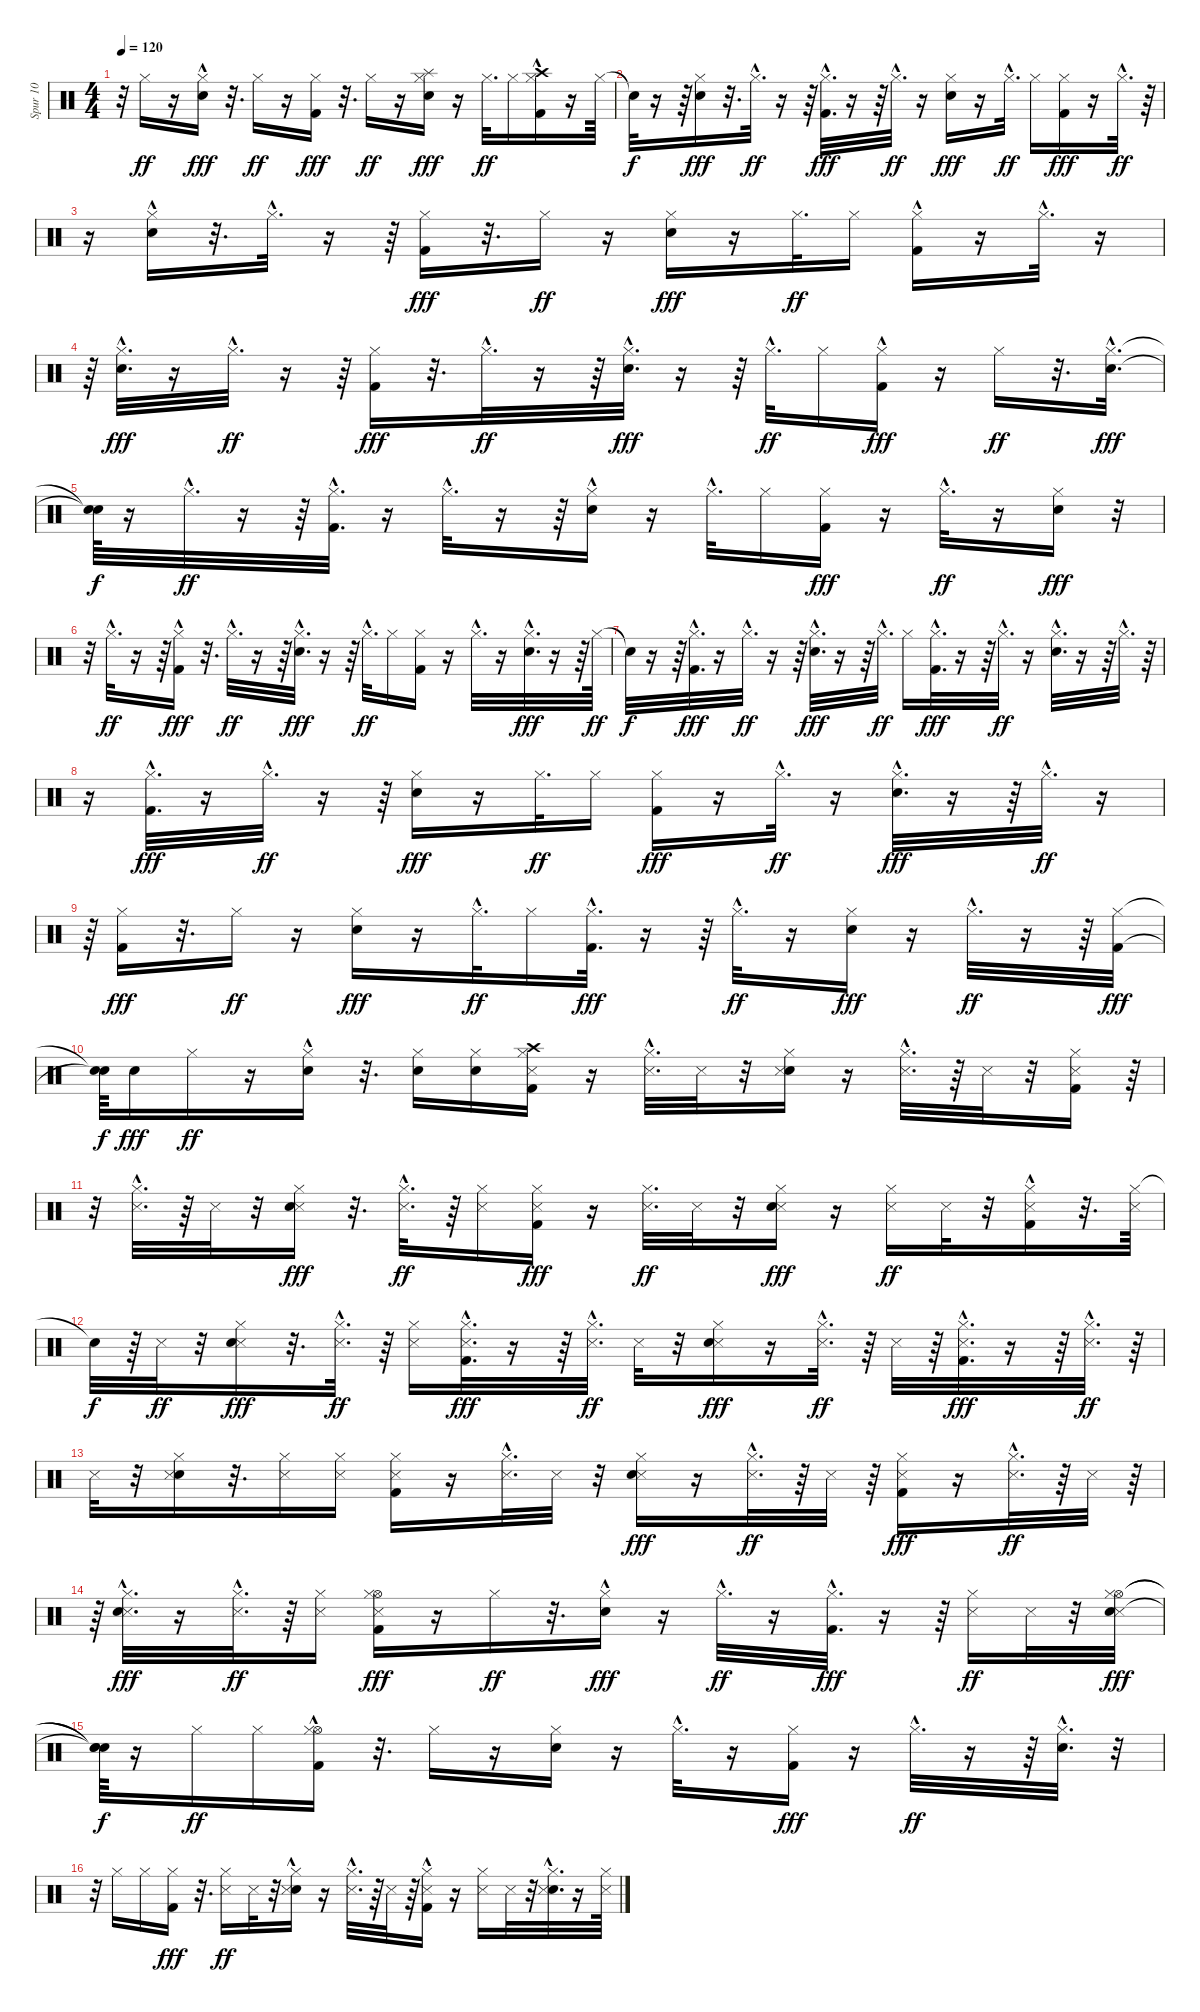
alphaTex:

\track ("Spur 10" "Spur 10") {instrument percussion}
\staff {score}
\articulation defaults
\ts (4 4)
\tempo 120
\clef neutral
\ks c
r.32{dy fff} "Hi-Hat (closed)".16{dy ff} r.16 ("Hi-Hat (closed)"{hac} "Snare (hit) 2").16{dy fff} r.32{d} "Hi-Hat (closed)".16{dy ff} r.16 ("Hi-Hat (closed)" "Kick (hit) 2").16{dy fff} r.32{d} "Hi-Hat (closed)".16{dy ff} r.16 ("Splash (hit)" "Hi-Hat (closed)" "Snare (hit) 2").16{dy fff} r.16 "Hi-Hat (closed)".32{d dy ff} "Hi-Hat (closed)".16 ("Kick (hit) 2"{hac} "Crash high (hit)" "Hi-Hat (closed)").16 r.16 "Hi-Hat (closed)".64 |
"Snare (hit)"{t}.32{dy f} r.16 r.64 ("Hi-Hat (closed)" "Snare (hit) 2").16{dy fff} r.32{d} "Hi-Hat (closed)"{hac}.32{d dy ff} r.16 r.64 ("Hi-Hat (closed)"{hac} "Kick (hit) 2"{hac}).32{d dy fff} r.16 r.64 "Hi-Hat (closed)"{hac}.32{d dy ff} r.16 ("Hi-Hat (closed)" "Snare (hit) 2").16{dy fff} r.16 "Hi-Hat (closed)"{hac}.32{d dy ff} "Hi-Hat (closed)".16 ("Hi-Hat (closed)" "Kick (hit) 2").16{dy fff} r.16 "Hi-Hat (closed)"{hac}.32{d dy ff} r.64 |
r.16 ("Snare (hit) 2"{hac} "Hi-Hat (closed)").16 r.32{d} "Hi-Hat (closed)"{hac}.32{d} r.16 r.64 ("Hi-Hat (closed)" "Kick (hit) 2").16{dy fff} r.32{d} "Hi-Hat (closed)".16{dy ff} r.16 ("Hi-Hat (closed)" "Snare (hit) 2").16{dy fff} r.16 "Hi-Hat (closed)".32{d dy ff} "Hi-Hat (closed)".16 ("Kick (hit) 2"{hac} "Hi-Hat (closed)").16 r.16 "Hi-Hat (closed)"{hac}.32{d} r.16 |
r.64 ("Hi-Hat (closed)"{hac} "Snare (hit) 2"{hac}).32{d dy fff} r.16 "Hi-Hat (closed)"{hac}.32{d dy ff} r.16 r.64 ("Hi-Hat (closed)" "Kick (hit) 2").16{dy fff} r.32{d} "Hi-Hat (closed)"{hac}.32{d dy ff} r.16 r.64 ("Hi-Hat (closed)"{hac} "Snare (hit) 2"{hac}).32{d dy fff} r.16 r.64 "Hi-Hat (closed)"{hac}.32{d dy ff} "Hi-Hat (closed)".16 ("Hi-Hat (closed)"{hac} "Kick (hit) 2").16{dy fff} r.16 "Hi-Hat (closed)".16{dy ff} r.32{d} ("Hi-Hat (closed)"{hac} "Snare (hit) 2"{hac}).32{d dy fff} |
("Snare (hit)"{t} "Snare (hit)"{t}).64{dy f} r.16 "Hi-Hat (closed)"{hac}.32{d dy ff} r.16 r.64 ("Kick (hit) 2"{hac} "Hi-Hat (closed)"{hac}).32{d} r.16 "Hi-Hat (closed)"{hac}.32{d} r.16 r.64 ("Snare (hit) 2" "Hi-Hat (closed)"{hac}).16 r.16 "Hi-Hat (closed)"{hac}.32{d} "Hi-Hat (closed)".16 ("Hi-Hat (closed)" "Kick (hit) 2").16{dy fff} r.16 "Hi-Hat (closed)"{hac}.32{d dy ff} r.16 ("Hi-Hat (closed)" "Snare (hit) 2").16{dy fff} r.32 |
r.32 "Hi-Hat (closed)"{hac}.32{d dy ff} r.16 r.64 ("Hi-Hat (closed)"{hac} "Kick (hit) 2").16{dy fff} r.32{d} "Hi-Hat (closed)"{hac}.32{d dy ff} r.16 r.64 ("Hi-Hat (closed)"{hac} "Snare (hit) 2"{hac}).32{d dy fff} r.16 r.64 "Hi-Hat (closed)"{hac}.32{d dy ff} "Hi-Hat (closed)".16 ("Kick (hit) 2" "Hi-Hat (closed)").16 r.16 "Hi-Hat (closed)"{hac}.32{d} r.16 ("Hi-Hat (closed)"{hac} "Snare (hit) 2"{hac}).32{d dy fff} r.16 r.64 "Hi-Hat (closed)".64{dy ff} |
"Snare (hit)"{t}.32{dy f} r.16 r.64 ("Hi-Hat (closed)"{hac} "Kick (hit) 2"{hac}).32{d dy fff} r.16 "Hi-Hat (closed)"{hac}.32{d dy ff} r.16 r.64 ("Hi-Hat (closed)"{hac} "Snare (hit) 2"{hac}).32{d dy fff} r.16 r.64 "Hi-Hat (closed)"{hac}.32{d dy ff} "Hi-Hat (closed)".16 ("Hi-Hat (closed)"{hac} "Kick (hit) 2"{hac}).32{d dy fff} r.16 r.64 "Hi-Hat (closed)"{hac}.32{d dy ff} r.16 ("Snare (hit) 2"{hac} "Hi-Hat (closed)"{hac}).32{d} r.16 r.64 "Hi-Hat (closed)"{hac}.32{d} r.64 |
r.16 ("Hi-Hat (closed)"{hac} "Kick (hit) 2"{hac}).32{d dy fff} r.16 "Hi-Hat (closed)"{hac}.32{d dy ff} r.16 r.64 ("Hi-Hat (closed)" "Snare (hit) 2").16{dy fff} r.16 "Hi-Hat (closed)".32{d dy ff} "Hi-Hat (closed)".16 ("Hi-Hat (closed)" "Kick (hit) 2").16{dy fff} r.16 "Hi-Hat (closed)"{hac}.32{d dy ff} r.16 ("Hi-Hat (closed)"{hac} "Snare (hit) 2"{hac}).32{d dy fff} r.16 r.64 "Hi-Hat (closed)"{hac}.32{d dy ff} r.16 |
r.64 ("Hi-Hat (closed)" "Kick (hit) 2").16{dy fff} r.32{d} "Hi-Hat (closed)".16{dy ff} r.16 ("Hi-Hat (closed)" "Snare (hit) 2").16{dy fff} r.16 "Hi-Hat (closed)"{hac}.32{d dy ff} "Hi-Hat (closed)".16 ("Hi-Hat (closed)"{hac} "Kick (hit) 2"{hac}).32{d dy fff} r.16 r.64 "Hi-Hat (closed)"{hac}.32{d dy ff} r.16 ("Hi-Hat (closed)" "Snare (hit) 2").16{dy fff} r.16 "Hi-Hat (closed)"{hac}.32{d dy ff} r.16 r.64 ("Hi-Hat (closed)" "Kick (hit) 2").32{dy fff} |
("Snare (hit)"{t} "Snare (hit)"{t}).64{dy f} "Snare (hit) 2".16{dy fff} "Hi-Hat (closed)".16{dy ff} r.16 ("Snare (hit) 2" "Hi-Hat (closed)"{hac}).16 r.32{d} ("Snare (hit) 2" "Hi-Hat (closed)").16 ("Snare (hit) 2" "Hi-Hat (closed)").16 ("Snare (side stick) 3" "Hi-Hat (closed)" "Kick (hit) 2" "Crash high (hit)").16 r.16 ("Snare (side stick) 3" "Hi-Hat (closed)"{hac}).32{d} "Snare (side stick) 3".32 r.32 ("Snare (hit) 2" "Snare (side stick) 3" "Hi-Hat (closed)").16 r.16 ("Hi-Hat (closed)"{hac} "Snare (side stick) 3").32{d} r.64 "Snare (side stick) 3".32 r.32 ("Kick (hit) 2" "Snare (side stick) 3" "Hi-Hat (closed)").16 r.64 |
r.32 ("Hi-Hat (closed)"{hac} "Snare (side stick) 3").32{d} r.64 "Snare (side stick) 3".32 r.32 ("Snare (side stick) 3" "Hi-Hat (closed)" "Snare (hit) 2").16{dy fff} r.32{d} ("Hi-Hat (closed)"{hac} "Snare (side stick) 3").32{d dy ff} r.64 ("Snare (side stick) 3" "Hi-Hat (closed)").16 ("Snare (side stick) 3" "Hi-Hat (closed)" "Kick (hit) 2").16{dy fff} r.16 ("Snare (side stick) 3" "Hi-Hat (closed)").32{d dy ff} "Snare (side stick) 3".32 r.32 ("Snare (side stick) 3" "Hi-Hat (closed)" "Snare (hit) 2").16{dy fff} r.16 ("Snare (side stick) 3" "Hi-Hat (closed)").16{dy ff} "Snare (side stick) 3".32 r.32 ("Kick (hit) 2"{hac} "Snare (side stick) 3" "Hi-Hat (closed)").16 r.32{d} ("Hi-Hat (closed)" "Snare (side stick) 3").64 |
"Snare (hit)"{t}.32{dy f} r.64 "Snare (side stick) 3".32{dy ff} r.32 ("Snare (side stick) 3" "Hi-Hat (closed)" "Snare (hit) 2").16{dy fff} r.32{d} ("Snare (side stick) 3" "Hi-Hat (closed)"{hac}).32{d dy ff} r.64 ("Hi-Hat (closed)" "Snare (side stick) 3").16 ("Snare (side stick) 3" "Hi-Hat (closed)"{hac} "Kick (hit) 2"{hac}).32{d dy fff} r.16 r.64 ("Hi-Hat (closed)"{hac} "Snare (side stick) 3").32{d dy ff} "Snare (side stick) 3".32 r.32 ("Snare (side stick) 3" "Hi-Hat (closed)" "Snare (hit) 2").16{dy fff} r.16 ("Snare (side stick) 3" "Hi-Hat (closed)"{hac}).32{d dy ff} r.64 "Snare (side stick) 3".32 r.64 ("Snare (side stick) 3" "Hi-Hat (closed)"{hac} "Kick (hit) 2"{hac}).32{d dy fff} r.16 r.64 ("Snare (side stick) 3" "Hi-Hat (closed)"{hac}).32{d dy ff} r.64 |
"Snare (side stick) 3".32 r.32 ("Hi-Hat (closed)" "Snare (hit) 2" "Snare (side stick) 3").16 r.32{d} ("Snare (side stick) 3" "Hi-Hat (closed)").16 ("Snare (side stick) 3" "Hi-Hat (closed)").16 ("Kick (hit) 2" "Hi-Hat (closed)" "Snare (side stick) 3").16 r.16 ("Snare (side stick) 3" "Hi-Hat (closed)"{hac}).32{d} "Snare (side stick) 3".32 r.32 ("Snare (side stick) 3" "Hi-Hat (closed)" "Snare (hit) 2").16{dy fff} r.16 ("Snare (side stick) 3" "Hi-Hat (closed)"{hac}).32{d dy ff} r.64 "Snare (side stick) 3".32 r.64 ("Snare (side stick) 3" "Hi-Hat (closed)" "Kick (hit) 2").16{dy fff} r.16 ("Hi-Hat (closed)"{hac} "Snare (side stick) 3").32{d dy ff} r.64 "Snare (side stick) 3".32 r.64 |
r.64 ("Snare (side stick) 3" "Hi-Hat (closed)"{hac} "Snare (hit) 2"{hac}).32{d dy fff} r.16 ("Snare (side stick) 3" "Hi-Hat (closed)"{hac}).32{d dy ff} r.64 ("Hi-Hat (closed)" "Snare (side stick) 3").16 ("Hi-Hat (open)" "Snare (side stick) 3" "Hi-Hat (closed)" "Kick (hit) 2").16{dy fff} r.16 "Hi-Hat (closed)".16{dy ff} r.32{d} ("Hi-Hat (closed)" "Snare (hit) 2"{hac}).16{dy fff} r.16 "Hi-Hat (closed)"{hac}.32{d dy ff} r.16 ("Hi-Hat (closed)"{hac} "Kick (hit) 2"{hac}).32{d dy fff} r.16 r.64 ("Snare (side stick) 3" "Hi-Hat (closed)").16{dy ff} "Snare (side stick) 3".32 r.32 ("Hi-Hat (open)" "Snare (side stick) 3" "Hi-Hat (closed)" "Snare (hit) 2").32{dy fff} |
("Snare (hit)"{t} "Snare (hit)"{t} "Snare (hit)"{t}).64{dy f} r.16 "Hi-Hat (closed)".16{dy ff} "Hi-Hat (closed)".16 ("Kick (hit) 2"{hac} "Hi-Hat (open)" "Hi-Hat (closed)").16 r.32{d} "Hi-Hat (closed)".16 r.16 ("Snare (hit) 2" "Hi-Hat (closed)").16 r.16 "Hi-Hat (closed)"{hac}.32{d} r.16 ("Hi-Hat (closed)" "Kick (hit) 2").16{dy fff} r.16 "Hi-Hat (closed)"{hac}.32{d dy ff} r.16 r.64 ("Snare (hit) 2"{hac} "Hi-Hat (closed)"{hac}).32{d} r.32 |
r.32 "Hi-Hat (closed)".16 "Hi-Hat (closed)".16 ("Hi-Hat (closed)" "Kick (hit) 2").16{dy fff} r.32{d} ("Hi-Hat (closed)" "Snare (side stick) 3").16{dy ff} "Snare (side stick) 3".32 r.32 ("Snare (hit) 2"{hac} "Hi-Hat (closed)" "Snare (side stick) 3").16 r.16 ("Hi-Hat (closed)"{hac} "Snare (side stick) 3").32{d} r.64 "Snare (side stick) 3".32 r.64 ("Kick (hit) 2"{hac} "Snare (side stick) 3" "Hi-Hat (closed)").16 r.16 ("Hi-Hat (closed)" "Snare (side stick) 3").16 "Snare (side stick) 3".32 r.32 ("Hi-Hat (closed)"{hac} "Snare (hit) 2"{hac} "Snare (side stick) 3").32{d} r.16 ("Hi-Hat (closed)" "Snare (side stick) 3").64
